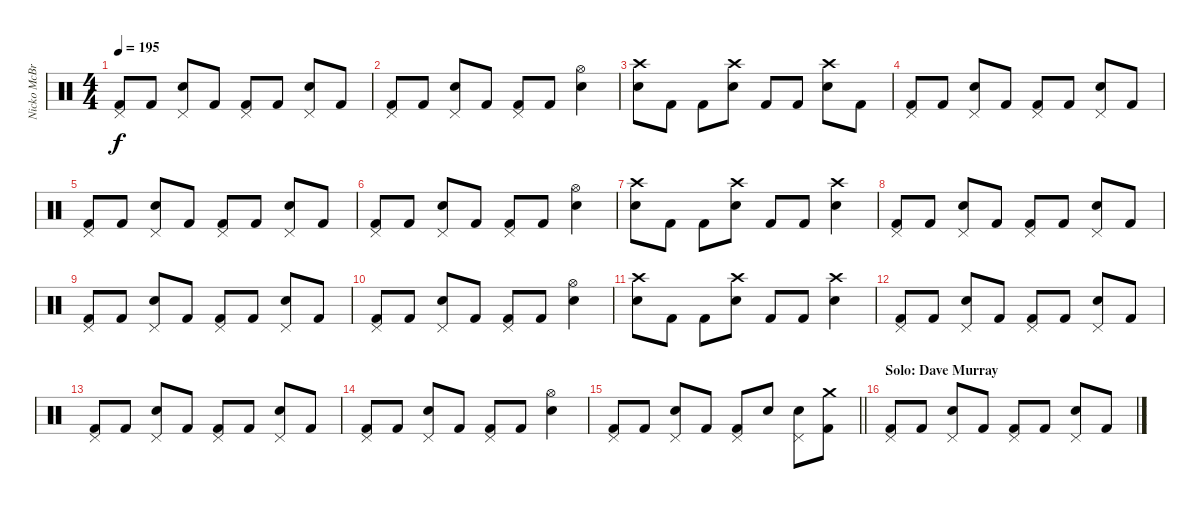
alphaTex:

\track ("Nicko McBrain" "Nicko McBr") {instrument percussion}
\staff {score}
\articulation defaults
\ts (4 4)
\tempo 195
\clef neutral
\ks c
("Pedal Hi-Hat (hit)" "Kick (hit) 2").8{dy f} "Kick (hit) 2".8 ("Pedal Hi-Hat (hit)" "Snare (hit) 2").8 "Kick (hit) 2".8 ("Pedal Hi-Hat (hit)" "Kick (hit) 2").8 "Kick (hit) 2".8 ("Pedal Hi-Hat (hit)" "Snare (hit) 2").8 "Kick (hit) 2".8 |
("Pedal Hi-Hat (hit)" "Kick (hit) 2").8 "Kick (hit) 2".8 ("Pedal Hi-Hat (hit)" "Snare (hit) 2").8 "Kick (hit) 2".8 ("Pedal Hi-Hat (hit)" "Kick (hit) 2").8 "Kick (hit) 2".8 ("Hi-Hat (open)" "Snare (hit) 2").4 |
("Crash high (hit)" "Snare (hit) 2").8 "Kick (hit) 2".8 "Kick (hit) 2".8 ("Crash high (hit)" "Snare (hit) 2").8 "Kick (hit) 2".8 "Kick (hit) 2".8 ("Crash high (hit)" "Snare (hit) 2").8 "Kick (hit) 2".8 |
("Pedal Hi-Hat (hit)" "Kick (hit) 2").8 "Kick (hit) 2".8 ("Pedal Hi-Hat (hit)" "Snare (hit) 2").8 "Kick (hit) 2".8 ("Pedal Hi-Hat (hit)" "Kick (hit) 2").8 "Kick (hit) 2".8 ("Pedal Hi-Hat (hit)" "Snare (hit) 2").8 "Kick (hit) 2".8 |
("Pedal Hi-Hat (hit)" "Kick (hit) 2").8 "Kick (hit) 2".8 ("Pedal Hi-Hat (hit)" "Snare (hit) 2").8 "Kick (hit) 2".8 ("Pedal Hi-Hat (hit)" "Kick (hit) 2").8 "Kick (hit) 2".8 ("Pedal Hi-Hat (hit)" "Snare (hit) 2").8 "Kick (hit) 2".8 |
("Pedal Hi-Hat (hit)" "Kick (hit) 2").8 "Kick (hit) 2".8 ("Pedal Hi-Hat (hit)" "Snare (hit) 2").8 "Kick (hit) 2".8 ("Pedal Hi-Hat (hit)" "Kick (hit) 2").8 "Kick (hit) 2".8 ("Hi-Hat (open)" "Snare (hit) 2").4 |
("Crash high (hit)" "Snare (hit) 2").8 "Kick (hit) 2".8 "Kick (hit) 2".8 ("Crash high (hit)" "Snare (hit) 2").8 "Kick (hit) 2".8 "Kick (hit) 2".8 ("Crash high (hit)" "Snare (hit) 2").4 |
("Pedal Hi-Hat (hit)" "Kick (hit) 2").8 "Kick (hit) 2".8 ("Pedal Hi-Hat (hit)" "Snare (hit) 2").8 "Kick (hit) 2".8 ("Pedal Hi-Hat (hit)" "Kick (hit) 2").8 "Kick (hit) 2".8 ("Pedal Hi-Hat (hit)" "Snare (hit) 2").8 "Kick (hit) 2".8 |
("Pedal Hi-Hat (hit)" "Kick (hit) 2").8 "Kick (hit) 2".8 ("Pedal Hi-Hat (hit)" "Snare (hit) 2").8 "Kick (hit) 2".8 ("Pedal Hi-Hat (hit)" "Kick (hit) 2").8 "Kick (hit) 2".8 ("Pedal Hi-Hat (hit)" "Snare (hit) 2").8 "Kick (hit) 2".8 |
("Pedal Hi-Hat (hit)" "Kick (hit) 2").8 "Kick (hit) 2".8 ("Pedal Hi-Hat (hit)" "Snare (hit) 2").8 "Kick (hit) 2".8 ("Pedal Hi-Hat (hit)" "Kick (hit) 2").8 "Kick (hit) 2".8 ("Hi-Hat (open)" "Snare (hit) 2").4 |
("Crash high (hit)" "Snare (hit) 2").8 "Kick (hit) 2".8 "Kick (hit) 2".8 ("Crash high (hit)" "Snare (hit) 2").8 "Kick (hit) 2".8 "Kick (hit) 2".8 ("Crash high (hit)" "Snare (hit) 2").4 |
("Pedal Hi-Hat (hit)" "Kick (hit) 2").8 "Kick (hit) 2".8 ("Pedal Hi-Hat (hit)" "Snare (hit) 2").8 "Kick (hit) 2".8 ("Pedal Hi-Hat (hit)" "Kick (hit) 2").8 "Kick (hit) 2".8 ("Pedal Hi-Hat (hit)" "Snare (hit) 2").8 "Kick (hit) 2".8 |
("Pedal Hi-Hat (hit)" "Kick (hit) 2").8 "Kick (hit) 2".8 ("Pedal Hi-Hat (hit)" "Snare (hit) 2").8 "Kick (hit) 2".8 ("Pedal Hi-Hat (hit)" "Kick (hit) 2").8 "Kick (hit) 2".8 ("Pedal Hi-Hat (hit)" "Snare (hit) 2").8 "Kick (hit) 2".8 |
("Pedal Hi-Hat (hit)" "Kick (hit) 2").8 "Kick (hit) 2".8 ("Pedal Hi-Hat (hit)" "Snare (hit) 2").8 "Kick (hit) 2".8 ("Pedal Hi-Hat (hit)" "Kick (hit) 2").8 "Kick (hit) 2".8 ("Hi-Hat (open)" "Snare (hit) 2").4 |
\barLineRight lightlight
("Pedal Hi-Hat (hit)" "Kick (hit) 2").8 "Kick (hit) 2".8 ("Pedal Hi-Hat (hit)" "Snare (hit) 2").8 "Kick (hit) 2".8 ("Pedal Hi-Hat (hit)" "Kick (hit) 2").8 "Snare (hit) 2".8 ("Pedal Hi-Hat (hit)" "Snare (hit) 2").8 ("Crash medium (hit)" "Kick (hit) 2").8 |
\section ("" "Solo: Dave Murray")
("Pedal Hi-Hat (hit)" "Kick (hit) 2").8 "Kick (hit) 2".8 ("Pedal Hi-Hat (hit)" "Snare (hit) 2").8 "Kick (hit) 2".8 ("Pedal Hi-Hat (hit)" "Kick (hit) 2").8 "Kick (hit) 2".8 ("Pedal Hi-Hat (hit)" "Snare (hit) 2").8 "Kick (hit) 2".8
